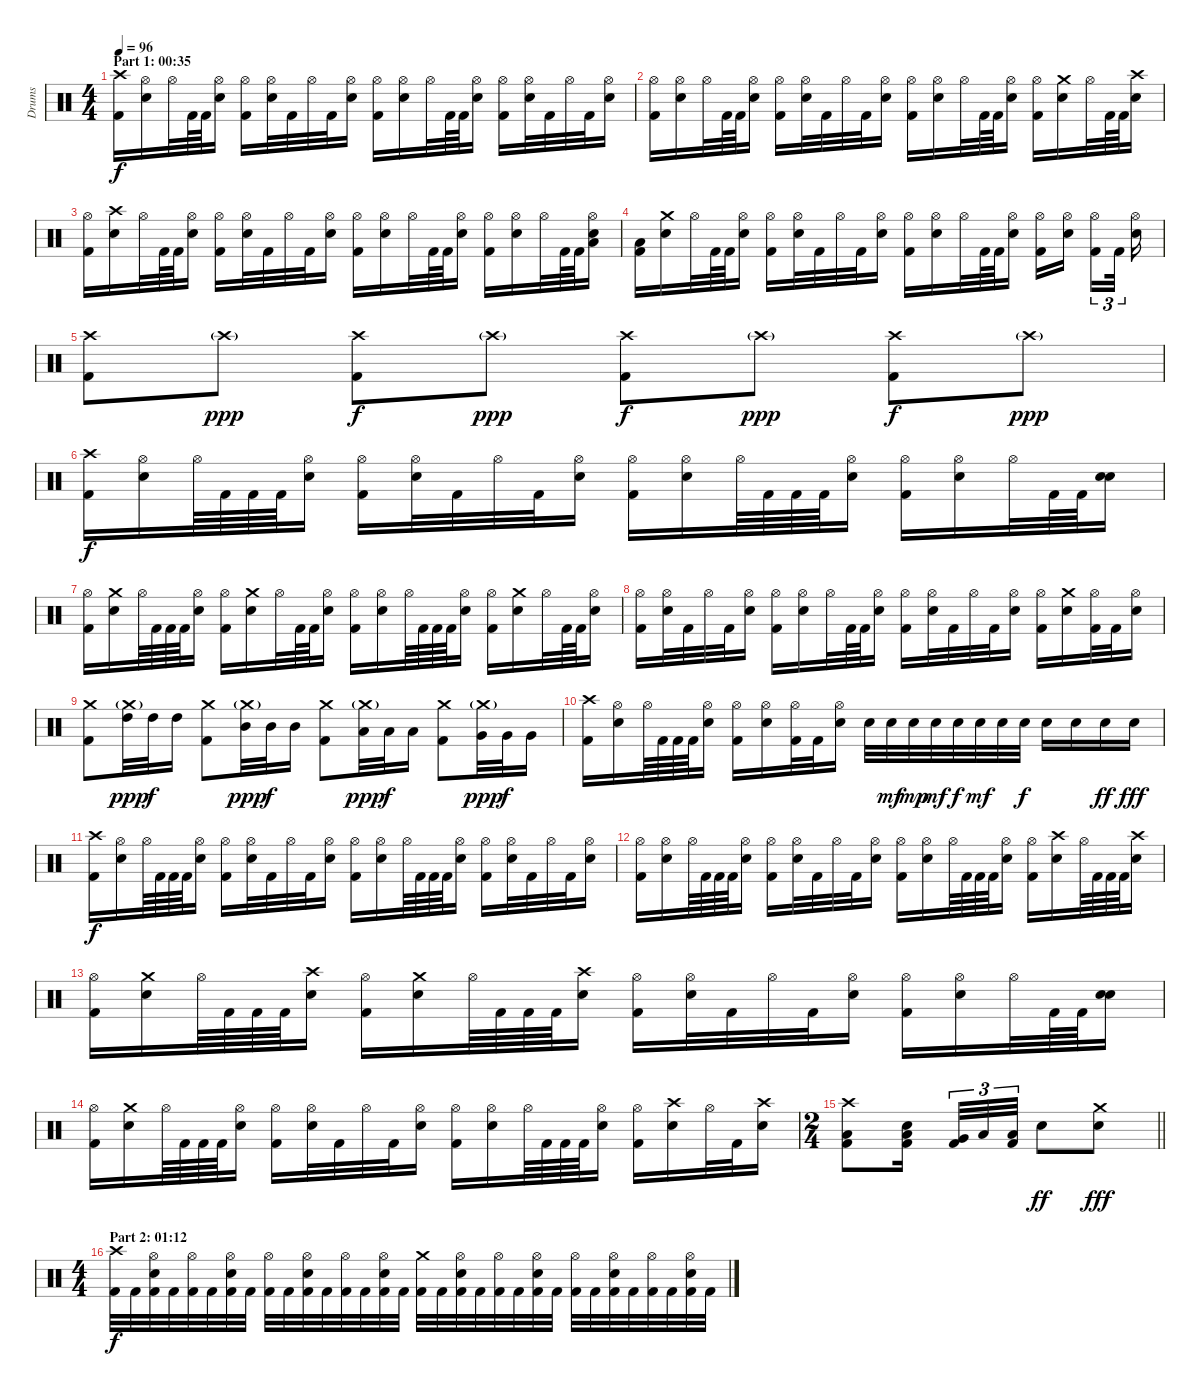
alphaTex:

\track ("Drums" "Drums") {instrument percussion}
\staff {score}
\articulation defaults
\ts (4 4)
\section ("" "Part 1: 00:35")
\tempo 96
\clef neutral
\ks c
("Crash high (hit)" "Kick (hit) 2").16{dy f} ("Hi-Hat (open)" "Electric Snare (hit)").16 "Hi-Hat (open)".32 "Kick (hit) 2".64 "Kick (hit) 2".64 ("Hi-Hat (open)" "Electric Snare (hit)").16 ("Hi-Hat (open)" "Kick (hit) 2").16 ("Hi-Hat (open)" "Electric Snare (hit)").32 "Kick (hit) 2".32 "Hi-Hat (open)".32 "Kick (hit) 2".32 ("Hi-Hat (open)" "Electric Snare (hit)").16 ("Hi-Hat (open)" "Kick (hit) 2").16 ("Hi-Hat (open)" "Electric Snare (hit)").16 "Hi-Hat (open)".32 "Kick (hit) 2".64 "Kick (hit) 2".64 ("Hi-Hat (open)" "Electric Snare (hit)").16 ("Hi-Hat (open)" "Kick (hit) 2").16 ("Hi-Hat (open)" "Electric Snare (hit)").32 "Kick (hit) 2".32 "Hi-Hat (open)".32 "Kick (hit) 2".32 ("Hi-Hat (open)" "Electric Snare (hit)").16 |
("Hi-Hat (open)" "Kick (hit) 2").16 ("Hi-Hat (open)" "Electric Snare (hit)").16 "Hi-Hat (open)".32 "Kick (hit) 2".64 "Kick (hit) 2".64 ("Hi-Hat (open)" "Electric Snare (hit)").16 ("Hi-Hat (open)" "Kick (hit) 2").16 ("Hi-Hat (open)" "Electric Snare (hit)").32 "Kick (hit) 2".32 "Hi-Hat (open)".32 "Kick (hit) 2".32 ("Hi-Hat (open)" "Electric Snare (hit)").16 ("Hi-Hat (open)" "Kick (hit) 2").16 ("Hi-Hat (open)" "Electric Snare (hit)").16 "Hi-Hat (open)".32 "Kick (hit) 2".64 "Kick (hit) 2".64 ("Hi-Hat (open)" "Electric Snare (hit)").16 ("Hi-Hat (open)" "Kick (hit) 2").16 ("Crash medium (hit)" "Electric Snare (hit)").16 "Hi-Hat (open)".32 "Kick (hit) 2".64 "Kick (hit) 2".64 ("Crash high (hit)" "Electric Snare (hit)").16 |
("Hi-Hat (open)" "Kick (hit) 2").16 ("Crash high (hit)" "Electric Snare (hit)").16 "Hi-Hat (open)".32 "Kick (hit) 2".64 "Kick (hit) 2".64 ("Hi-Hat (open)" "Electric Snare (hit)").16 ("Hi-Hat (open)" "Kick (hit) 2").16 ("Hi-Hat (open)" "Electric Snare (hit)").32 "Kick (hit) 2".32 "Hi-Hat (open)".32 "Kick (hit) 2".32 ("Hi-Hat (open)" "Electric Snare (hit)").16 ("Hi-Hat (open)" "Kick (hit) 2").16 ("Hi-Hat (open)" "Electric Snare (hit)").16 "Hi-Hat (open)".32 "Kick (hit) 2".64 "Kick (hit) 2".64 ("Hi-Hat (open)" "Electric Snare (hit)").16 ("Hi-Hat (open)" "Kick (hit) 2").16 ("Hi-Hat (open)" "Electric Snare (hit)").16 "Hi-Hat (open)".32 "Kick (hit) 2".64 "Kick (hit) 2".64 ("Hi-Hat (open)" "Low Tom (hit)" "Electric Snare (hit)").16 |
("Low Floor Tom (hit)" "Kick (hit) 2").16 ("Crash medium (hit)" "Electric Snare (hit)").16 "Hi-Hat (open)".32 "Kick (hit) 2".64 "Kick (hit) 2".64 ("Hi-Hat (open)" "Electric Snare (hit)").16 ("Hi-Hat (open)" "Kick (hit) 2").16 ("Hi-Hat (open)" "Electric Snare (hit)").32 "Kick (hit) 2".32 "Hi-Hat (open)".32 "Kick (hit) 2".32 ("Hi-Hat (open)" "Electric Snare (hit)").16 ("Hi-Hat (open)" "Kick (hit) 2").16 ("Hi-Hat (open)" "Electric Snare (hit)").16 "Hi-Hat (open)".32 "Kick (hit) 2".64 "Kick (hit) 2".64 ("Hi-Hat (open)" "Electric Snare (hit)").16 ("Hi-Hat (open)" "Kick (hit) 2").16 ("Hi-Hat (open)" "Electric Snare (hit)").16{beam splitsecondary} ("Hi-Hat (open)" "Kick (hit) 2").16{tu (3 2)} "Kick (hit) 2".32{tu (3 2) beam splitsecondary} ("Hi-Hat (open)" "Electric Snare (hit)").16 |
("Crash high (hit)" "Kick (hit) 2").8 "Crash high (hit)"{g}.8{dy ppp} ("Crash high (hit)" "Kick (hit) 2").8{dy f} "Crash high (hit)"{g}.8{dy ppp} ("Crash high (hit)" "Kick (hit) 2").8{dy f} "Crash high (hit)"{g}.8{dy ppp} ("Crash high (hit)" "Kick (hit) 2").8{dy f} "Crash high (hit)"{g}.8{dy ppp} |
("Crash high (hit)" "Kick (hit) 2").16{dy f} ("Hi-Hat (open)" "Electric Snare (hit)").16 "Hi-Hat (open)".64 "Kick (hit) 2".64 "Kick (hit) 2".64 "Kick (hit) 2".64 ("Hi-Hat (open)" "Electric Snare (hit)").16 ("Hi-Hat (open)" "Kick (hit) 2").16 ("Hi-Hat (open)" "Electric Snare (hit)").32 "Kick (hit) 2".32 "Hi-Hat (open)".32 "Kick (hit) 2".32 ("Hi-Hat (open)" "Electric Snare (hit)").16 ("Hi-Hat (open)" "Kick (hit) 2").16 ("Hi-Hat (open)" "Electric Snare (hit)").16 "Hi-Hat (open)".64 "Kick (hit) 2".64 "Kick (hit) 2".64 "Kick (hit) 2".64 ("Hi-Hat (open)" "Electric Snare (hit)").16 ("Hi-Hat (open)" "Kick (hit) 2").16 ("Hi-Hat (open)" "Electric Snare (hit)").16 "Hi-Hat (open)".32 "Kick (hit) 2".64 "Kick (hit) 2".64 ("Electric Snare (hit)" "Electric Snare (hit)").16{bd 60} |
("Hi-Hat (open)" "Kick (hit) 2").16 ("Crash medium (hit)" "Electric Snare (hit)").16 "Hi-Hat (open)".64 "Kick (hit) 2".64 "Kick (hit) 2".64 "Kick (hit) 2".64 ("Hi-Hat (open)" "Electric Snare (hit)").16 ("Hi-Hat (open)" "Kick (hit) 2").16 ("Crash medium (hit)" "Electric Snare (hit)").16 "Hi-Hat (open)".32 "Kick (hit) 2".64 "Kick (hit) 2".64 ("Hi-Hat (open)" "Electric Snare (hit)").16 ("Hi-Hat (open)" "Kick (hit) 2").16 ("Hi-Hat (open)" "Electric Snare (hit)").16 "Hi-Hat (open)".64 "Kick (hit) 2".64 "Kick (hit) 2".64 "Kick (hit) 2".64 ("Hi-Hat (open)" "Electric Snare (hit)").16 ("Hi-Hat (open)" "Kick (hit) 2").16 ("Crash medium (hit)" "Electric Snare (hit)").16 "Hi-Hat (open)".32 "Kick (hit) 2".64 "Kick (hit) 2".64 ("Hi-Hat (open)" "Electric Snare (hit)").16 |
("Hi-Hat (open)" "Kick (hit) 2").16 ("Hi-Hat (open)" "Electric Snare (hit)").32 "Kick (hit) 2".32 "Hi-Hat (open)".32 "Kick (hit) 2".32 ("Hi-Hat (open)" "Electric Snare (hit)").16 ("Hi-Hat (open)" "Kick (hit) 2").16 ("Hi-Hat (open)" "Electric Snare (hit)").16 "Hi-Hat (open)".32 "Kick (hit) 2".64 "Kick (hit) 2".64 ("Hi-Hat (open)" "Electric Snare (hit)").16 ("Hi-Hat (open)" "Kick (hit) 2").16 ("Hi-Hat (open)" "Electric Snare (hit)").32 "Kick (hit) 2".32 "Hi-Hat (open)".32 "Kick (hit) 2".32 ("Hi-Hat (open)" "Electric Snare (hit)").16 ("Hi-Hat (open)" "Kick (hit) 2").16 ("Crash medium (hit)" "Electric Snare (hit)").16 ("Hi-Hat (open)" "Kick (hit) 2").32 "Kick (hit) 2".32 ("Hi-Hat (open)" "Electric Snare (hit)").16 |
("Crash medium (hit)" "Kick (hit) 2").8 ("Crash medium (hit)"{g} "High Tom (hit)").32{dy ppp} "High Tom (hit)".32{dy f} "High Tom (hit)".16 ("Crash medium (hit)" "Kick (hit) 2").8 ("Crash medium (hit)"{g} "Mid Tom (hit)").32{dy ppp} "Mid Tom (hit)".32{dy f} "Mid Tom (hit)".16 ("Crash medium (hit)" "Kick (hit) 2").8 ("Crash medium (hit)"{g} "Low Tom (hit)").32{dy ppp} "Low Tom (hit)".32{dy f} "Low Tom (hit)".16 ("Crash medium (hit)" "Kick (hit) 2").8 ("Crash medium (hit)"{g} "Very Low Tom (hit)").32{dy ppp} "Very Low Tom (hit)".32{dy f} "Very Low Tom (hit)".16 |
("Crash high (hit)" "Kick (hit) 2").16 ("Hi-Hat (open)" "Electric Snare (hit)").16 "Hi-Hat (open)".64 "Kick (hit) 2".64 "Kick (hit) 2".64 "Kick (hit) 2".64 ("Hi-Hat (open)" "Electric Snare (hit)").16 ("Hi-Hat (open)" "Kick (hit) 2").16 ("Hi-Hat (open)" "Electric Snare (hit)").16 ("Hi-Hat (open)" "Kick (hit) 2").32 "Kick (hit) 2".32 ("Hi-Hat (open)" "Electric Snare (hit)").16 "Electric Snare (hit)".32 "Electric Snare (hit)".32{dy mf} "Electric Snare (hit)".32{dy mp} "Electric Snare (hit)".32{dy mf} "Electric Snare (hit)".32{dy f} "Electric Snare (hit)".32{dy mf} "Electric Snare (hit)".32 "Electric Snare (hit)".32{dy f} "Electric Snare (hit)".16 "Electric Snare (hit)".16 "Electric Snare (hit)".16{dy ff} "Electric Snare (hit)".16{dy fff} |
("Crash high (hit)" "Kick (hit) 2").16{dy f} ("Hi-Hat (open)" "Electric Snare (hit)").16 "Hi-Hat (open)".64 "Kick (hit) 2".64 "Kick (hit) 2".64 "Kick (hit) 2".64 ("Hi-Hat (open)" "Electric Snare (hit)").16 ("Hi-Hat (open)" "Kick (hit) 2").16 ("Hi-Hat (open)" "Electric Snare (hit)").32 "Kick (hit) 2".32 "Hi-Hat (open)".32 "Kick (hit) 2".32 ("Hi-Hat (open)" "Electric Snare (hit)").16 ("Hi-Hat (open)" "Kick (hit) 2").16 ("Hi-Hat (open)" "Electric Snare (hit)").16 "Hi-Hat (open)".64 "Kick (hit) 2".64 "Kick (hit) 2".64 "Kick (hit) 2".64 ("Hi-Hat (open)" "Electric Snare (hit)").16 ("Hi-Hat (open)" "Kick (hit) 2").16 ("Hi-Hat (open)" "Electric Snare (hit)").32 "Kick (hit) 2".32 "Hi-Hat (open)".32 "Kick (hit) 2".32 ("Hi-Hat (open)" "Electric Snare (hit)").16 |
("Hi-Hat (open)" "Kick (hit) 2").16 ("Hi-Hat (open)" "Electric Snare (hit)").16 "Hi-Hat (open)".64 "Kick (hit) 2".64 "Kick (hit) 2".64 "Kick (hit) 2".64 ("Hi-Hat (open)" "Electric Snare (hit)").16 ("Hi-Hat (open)" "Kick (hit) 2").16 ("Hi-Hat (open)" "Electric Snare (hit)").32 "Kick (hit) 2".32 "Hi-Hat (open)".32 "Kick (hit) 2".32 ("Hi-Hat (open)" "Electric Snare (hit)").16 ("Hi-Hat (open)" "Kick (hit) 2").16 ("Hi-Hat (open)" "Electric Snare (hit)").16 "Hi-Hat (open)".64 "Kick (hit) 2".64 "Kick (hit) 2".64 "Kick (hit) 2".64 ("Hi-Hat (open)" "Electric Snare (hit)").16 ("Hi-Hat (open)" "Kick (hit) 2").16 ("Crash high (hit)" "Electric Snare (hit)").16 "Hi-Hat (open)".64 "Kick (hit) 2".64 "Kick (hit) 2".64 "Kick (hit) 2".64 ("Crash high (hit)" "Electric Snare (hit)").16 |
("Hi-Hat (open)" "Kick (hit) 2").16 ("Crash medium (hit)" "Electric Snare (hit)").16 "Hi-Hat (open)".64 "Kick (hit) 2".64 "Kick (hit) 2".64 "Kick (hit) 2".64 ("Crash high (hit)" "Electric Snare (hit)").16 ("Hi-Hat (open)" "Kick (hit) 2").16 ("Crash medium (hit)" "Electric Snare (hit)").16 "Hi-Hat (open)".64 "Kick (hit) 2".64 "Kick (hit) 2".64 "Kick (hit) 2".64 ("Crash high (hit)" "Electric Snare (hit)").16 ("Hi-Hat (open)" "Kick (hit) 2").16 ("Hi-Hat (open)" "Electric Snare (hit)").32 "Kick (hit) 2".32 "Hi-Hat (open)".32 "Kick (hit) 2".32 ("Hi-Hat (open)" "Electric Snare (hit)").16 ("Hi-Hat (open)" "Kick (hit) 2").16 ("Hi-Hat (open)" "Electric Snare (hit)").16 "Hi-Hat (open)".32 "Kick (hit) 2".64 "Kick (hit) 2".64 ("Electric Snare (hit)" "Electric Snare (hit)").16{bd 60} |
("Hi-Hat (open)" "Kick (hit) 2").16 ("Crash medium (hit)" "Electric Snare (hit)").16 "Hi-Hat (open)".64 "Kick (hit) 2".64 "Kick (hit) 2".64 "Kick (hit) 2".64 ("Hi-Hat (open)" "Electric Snare (hit)").16 ("Hi-Hat (open)" "Kick (hit) 2").16 ("Hi-Hat (open)" "Electric Snare (hit)").32 "Kick (hit) 2".32 "Hi-Hat (open)".32 "Kick (hit) 2".32 ("Hi-Hat (open)" "Electric Snare (hit)").16 ("Hi-Hat (open)" "Kick (hit) 2").16 ("Hi-Hat (open)" "Electric Snare (hit)").16 "Hi-Hat (open)".64 "Kick (hit) 2".64 "Kick (hit) 2".64 "Kick (hit) 2".64 ("Hi-Hat (open)" "Electric Snare (hit)").16 ("Hi-Hat (open)" "Kick (hit) 2").16 ("Crash high (hit)" "Electric Snare (hit)").16 "Hi-Hat (open)".32 "Kick (hit) 2".32 ("Crash high (hit)" "Electric Snare (hit)").16 |
\ts (2 4)
\barLineRight lightlight
("Crash high (hit)" "Low Floor Tom (hit)" "Kick (hit) 2").8 ("Low Tom (hit)" "Electric Snare (hit)" "Kick (hit) 2").16{bd 30 beam splitsecondary} ("Very Low Tom (hit)" "Kick (hit) 2").32{tu (3 2) bd 30} "Low Floor Tom (hit)".32{tu (3 2)} ("Low Floor Tom (hit)" "Kick (hit) 2").32{tu (3 2)} "Electric Snare (hit)".8{dy ff} ("Crash medium (hit)" "Electric Snare (hit)").8{dy fff} |
\ts (4 4)
\section ("" "Part 2: 01:12")
("Crash high (hit)" "Kick (hit) 2").32{dy f} "Kick (hit) 2".32 ("Hi-Hat (open)" "Electric Snare (hit)" "Kick (hit) 2").32 "Kick (hit) 2".32 ("Hi-Hat (open)" "Kick (hit) 2").32 "Kick (hit) 2".32 ("Hi-Hat (open)" "Electric Snare (hit)" "Kick (hit) 2").32 "Kick (hit) 2".32 ("Hi-Hat (open)" "Kick (hit) 2").32 "Kick (hit) 2".32 ("Hi-Hat (open)" "Electric Snare (hit)" "Kick (hit) 2").32 "Kick (hit) 2".32 ("Hi-Hat (open)" "Kick (hit) 2").32 "Kick (hit) 2".32 ("Hi-Hat (open)" "Electric Snare (hit)" "Kick (hit) 2").32 "Kick (hit) 2".32 ("Crash medium (hit)" "Kick (hit) 2").32 "Kick (hit) 2".32 ("Hi-Hat (open)" "Electric Snare (hit)" "Kick (hit) 2").32 "Kick (hit) 2".32 ("Hi-Hat (open)" "Kick (hit) 2").32 "Kick (hit) 2".32 ("Hi-Hat (open)" "Electric Snare (hit)" "Kick (hit) 2").32 "Kick (hit) 2".32 ("Hi-Hat (open)" "Kick (hit) 2").32 "Kick (hit) 2".32 ("Hi-Hat (open)" "Electric Snare (hit)" "Kick (hit) 2").32 "Kick (hit) 2".32 ("Hi-Hat (open)" "Kick (hit) 2").32 "Kick (hit) 2".32 ("Hi-Hat (open)" "Electric Snare (hit)" "Kick (hit) 2").32 "Kick (hit) 2".32
